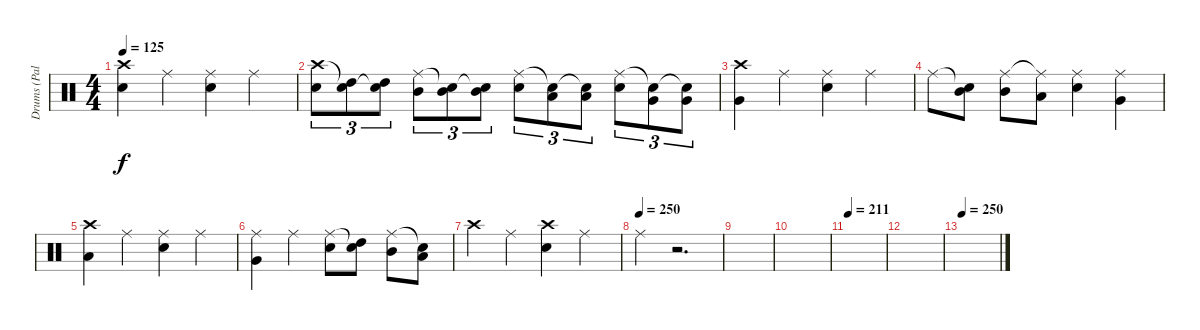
\track ("Drums (Palmer)" "Drums (Pal") {instrument percussion}
\staff {score}
\articulation defaults
\ts (4 4)
\tempo 125
\clef neutral
\ks c
("Crash high (hit)" "Snare (hit) 2").4{dy f} "Ride (middle)".4 ("Ride (middle)" "Snare (hit) 2").4 "Ride (middle)".4 |
("Crash high (hit)" "Snare (hit) 2").8{tu (3 2)} ("Snare (hit)"{t} "High Tom (hit)").8{tu (3 2)} ("Snare (hit)"{t} "High Tom (hit)").8{tu (3 2)} ("Ride (middle)" "Mid Tom (hit)").8{tu (3 2)} ("Snare (hit)"{t} "Mid Tom (hit)").8{tu (3 2)} ("Snare (hit)"{t} "Mid Tom (hit)").8{tu (3 2)} ("Ride (middle)" "Snare (hit) 2").8{tu (3 2)} ("Snare (hit)"{t} "Low Tom (hit)").8{tu (3 2)} ("Snare (hit)"{t} "Low Tom (hit)").8{tu (3 2)} ("Ride (middle)" "Snare (hit) 2").8{tu (3 2)} ("Snare (hit)"{t} "Very Low Tom (hit)").8{tu (3 2)} ("Snare (hit)"{t} "Very Low Tom (hit)").8{tu (3 2)} |
("Crash high (hit)" "Very Low Tom (hit)").4 "Ride (middle)".4 ("Ride (middle)" "Snare (hit) 2").4 "Ride (middle)".4 |
"Ride (middle)".8 ("Snare (hit)"{t} "Mid Tom (hit)").8 ("Ride (middle)" "Mid Tom (hit)").8 ("Ride (middle)"{t} "Low Tom (hit)").8 ("Ride (middle)" "Snare (hit) 2").4 ("Ride (middle)" "Very Low Tom (hit)").4 |
("Crash high (hit)" "Low Floor Tom (hit)").4 "Ride (middle)".4 ("Ride (middle)" "Snare (hit) 2").4 "Ride (middle)".4 |
("Ride (middle)" "Very Low Tom (hit)").4 "Ride (middle)".4 ("Ride (middle)" "Snare (hit) 2").8 ("Snare (hit)"{t} "High Tom (hit)").8 ("Ride (middle)" "Mid Tom (hit)").8 ("Snare (hit)"{t} "Low Tom (hit)").8 |
"Crash high (hit)".4 "Ride (middle)".4 ("Crash high (hit)" "Snare (hit) 2").4 "Ride (middle)".4 |
\tempo (250)
"Ride (middle)".4 r.2{d} |
|
|
\tempo 211
|
|
\tempo 250
